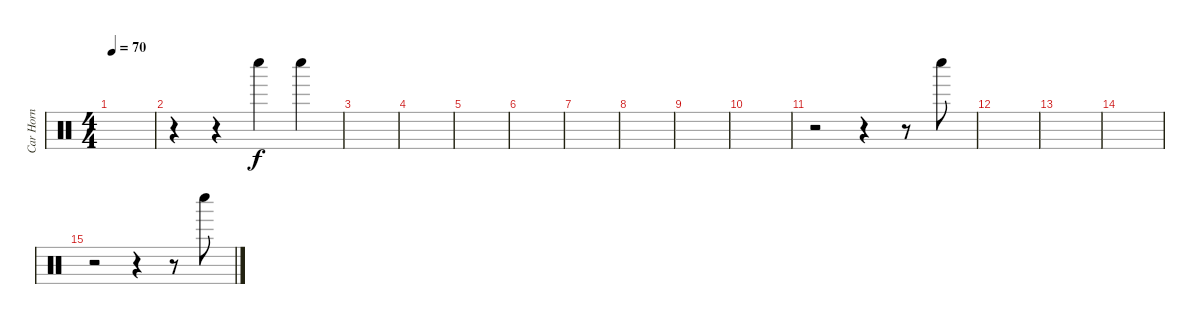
\track ("Car Horn" "Car Horn") {instrument percussion}
\staff {score}
\articulation defaults
\ts (4 4)
\tempo 70
\clef neutral
\ks c
|
r.4 r.4 "Whistle low (hit)".4 "Whistle low (hit)".4 |
|
|
|
|
|
|
|
|
r.2 r.4 r.8 "Whistle low (hit)".8 |
|
|
|
r.2 r.4 r.8 "Whistle low (hit)".8
